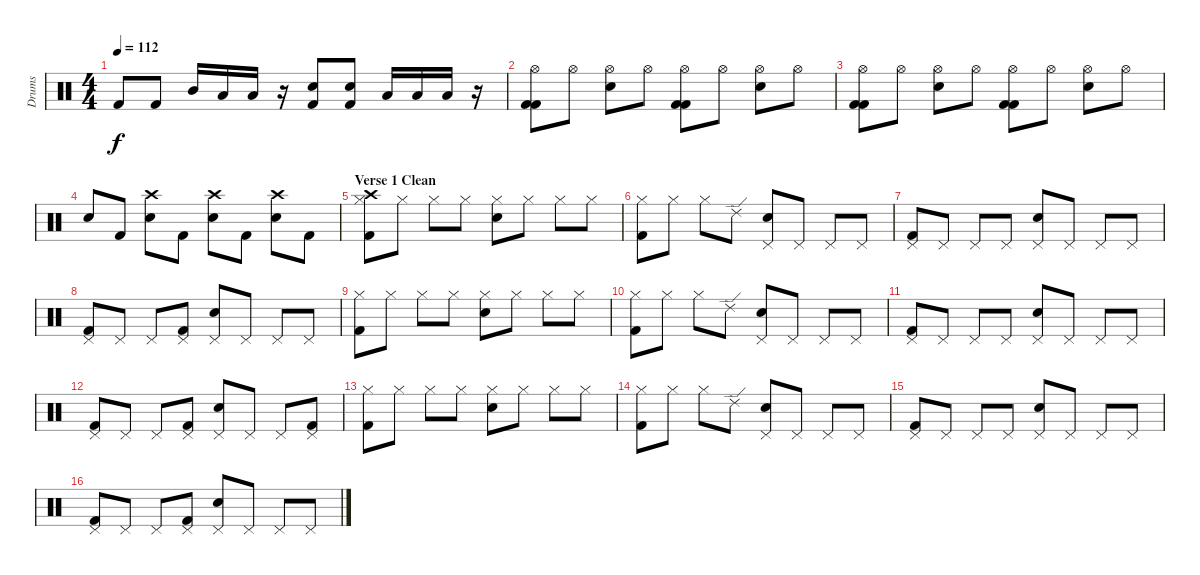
\track ("Drums" "Drums") {instrument percussion}
\staff {score}
\articulation defaults
\ts (4 4)
\tempo 112
\clef neutral
\ks c "Kick (hit) 2".8{dy f} "Kick (hit) 2".8 "Mid Tom (hit)".16 "Low Tom (hit)".16 "Low Floor Tom (hit)".16
r.16 ("Snare (hit) 2" "Kick (hit) 2").8 ("Snare (hit) 2" "Kick (hit) 2").8 "Low Tom (hit)".16 "Low Tom (hit)".16 "Low Floor Tom (hit)".16 r.16 |
("Hi-Hat (open)" "Kick (hit) 2" "Kick (hit) 2").8 "Hi-Hat (open)".8 ("Hi-Hat (open)" "Electric Snare (hit)").8 "Hi-Hat (open)".8 ("Hi-Hat (open)" "Kick (hit) 2" "Kick (hit) 2").8 "Hi-Hat (open)".8 ("Hi-Hat (open)" "Electric Snare (hit)").8 "Hi-Hat (open)".8 |
("Hi-Hat (open)" "Kick (hit) 2" "Kick (hit) 2").8 "Hi-Hat (open)".8 ("Hi-Hat (open)" "Electric Snare (hit)").8 "Hi-Hat (open)".8 ("Hi-Hat (open)" "Kick (hit) 2" "Kick (hit) 2").8 "Hi-Hat (open)".8 ("Hi-Hat (open)" "Electric Snare (hit)").8 "Hi-Hat (open)".8 |
"Electric Snare (hit)".8 "Kick (hit) 2".8 ("Crash high (hit)" "Electric Snare (hit)").8 "Kick (hit) 2".8 ("Crash high (hit)" "Electric Snare (hit)").8 "Kick (hit) 2".8 ("Crash high (hit)" "Electric Snare (hit)").8 "Kick (hit) 2".8 |
\section ("" "Verse 1 Clean")
("Hi-Hat (closed)" "Crash high (hit)" "Kick (hit) 2").8 "Hi-Hat (closed)".8 "Hi-Hat (closed)".8 "Hi-Hat (closed)".8 ("Hi-Hat (closed)" "Electric Snare (hit)").8 "Hi-Hat (closed)".8 "Hi-Hat (closed)".8 "Hi-Hat (closed)".8 |
("Hi-Hat (closed)" "Kick (hit) 2").8 "Hi-Hat (closed)".8 "Hi-Hat (closed)".8 "Ride (edge) 2".8 ("Pedal Hi-Hat (hit)" "Electric Snare (hit)").8 "Pedal Hi-Hat (hit)".8 "Pedal Hi-Hat (hit)".8 "Pedal Hi-Hat (hit)".8 |
("Pedal Hi-Hat (hit)" "Kick (hit) 2").8 "Pedal Hi-Hat (hit)".8 "Pedal Hi-Hat (hit)".8 "Pedal Hi-Hat (hit)".8 ("Pedal Hi-Hat (hit)" "Electric Snare (hit)").8 "Pedal Hi-Hat (hit)".8 "Pedal Hi-Hat (hit)".8 "Pedal Hi-Hat (hit)".8 |
("Pedal Hi-Hat (hit)" "Kick (hit) 2").8 "Pedal Hi-Hat (hit)".8 "Pedal Hi-Hat (hit)".8 ("Pedal Hi-Hat (hit)" "Kick (hit) 2").8 ("Pedal Hi-Hat (hit)" "Electric Snare (hit)").8 "Pedal Hi-Hat (hit)".8 "Pedal Hi-Hat (hit)".8 "Pedal Hi-Hat (hit)".8 |
("Hi-Hat (closed)" "Kick (hit) 2").8 "Hi-Hat (closed)".8 "Hi-Hat (closed)".8 "Hi-Hat (closed)".8 ("Hi-Hat (closed)" "Electric Snare (hit)").8 "Hi-Hat (closed)".8 "Hi-Hat (closed)".8 "Hi-Hat (closed)".8 |
("Hi-Hat (closed)" "Kick (hit) 2").8 "Hi-Hat (closed)".8 "Hi-Hat (closed)".8 "Ride (edge) 2".8 ("Pedal Hi-Hat (hit)" "Electric Snare (hit)").8 "Pedal Hi-Hat (hit)".8 "Pedal Hi-Hat (hit)".8 "Pedal Hi-Hat (hit)".8 |
("Pedal Hi-Hat (hit)" "Kick (hit) 2").8 "Pedal Hi-Hat (hit)".8 "Pedal Hi-Hat (hit)".8 "Pedal Hi-Hat (hit)".8 ("Pedal Hi-Hat (hit)" "Electric Snare (hit)").8 "Pedal Hi-Hat (hit)".8 "Pedal Hi-Hat (hit)".8 "Pedal Hi-Hat (hit)".8 |
("Pedal Hi-Hat (hit)" "Kick (hit) 2").8 "Pedal Hi-Hat (hit)".8 "Pedal Hi-Hat (hit)".8 ("Pedal Hi-Hat (hit)" "Kick (hit) 2").8 ("Pedal Hi-Hat (hit)" "Electric Snare (hit)").8 "Pedal Hi-Hat (hit)".8 "Pedal Hi-Hat (hit)".8 ("Pedal Hi-Hat (hit)" "Kick (hit) 2").8 |
("Hi-Hat (closed)" "Kick (hit) 2").8 "Hi-Hat (closed)".8 "Hi-Hat (closed)".8 "Hi-Hat (closed)".8 ("Hi-Hat (closed)" "Electric Snare (hit)").8 "Hi-Hat (closed)".8 "Hi-Hat (closed)".8 "Hi-Hat (closed)".8 |
("Hi-Hat (closed)" "Kick (hit) 2").8 "Hi-Hat (closed)".8 "Hi-Hat (closed)".8 "Ride (edge) 2".8 ("Pedal Hi-Hat (hit)" "Electric Snare (hit)").8 "Pedal Hi-Hat (hit)".8 "Pedal Hi-Hat (hit)".8 "Pedal Hi-Hat (hit)".8 |
("Pedal Hi-Hat (hit)" "Kick (hit) 2").8 "Pedal Hi-Hat (hit)".8 "Pedal Hi-Hat (hit)".8 "Pedal Hi-Hat (hit)".8 ("Pedal Hi-Hat (hit)" "Electric Snare (hit)").8 "Pedal Hi-Hat (hit)".8 "Pedal Hi-Hat (hit)".8 "Pedal Hi-Hat (hit)".8 |
("Pedal Hi-Hat (hit)" "Kick (hit) 2").8 "Pedal Hi-Hat (hit)".8 "Pedal Hi-Hat (hit)".8 ("Pedal Hi-Hat (hit)" "Kick (hit) 2").8 ("Pedal Hi-Hat (hit)" "Electric Snare (hit)").8 "Pedal Hi-Hat (hit)".8 "Pedal Hi-Hat (hit)".8 "Pedal Hi-Hat (hit)".8
